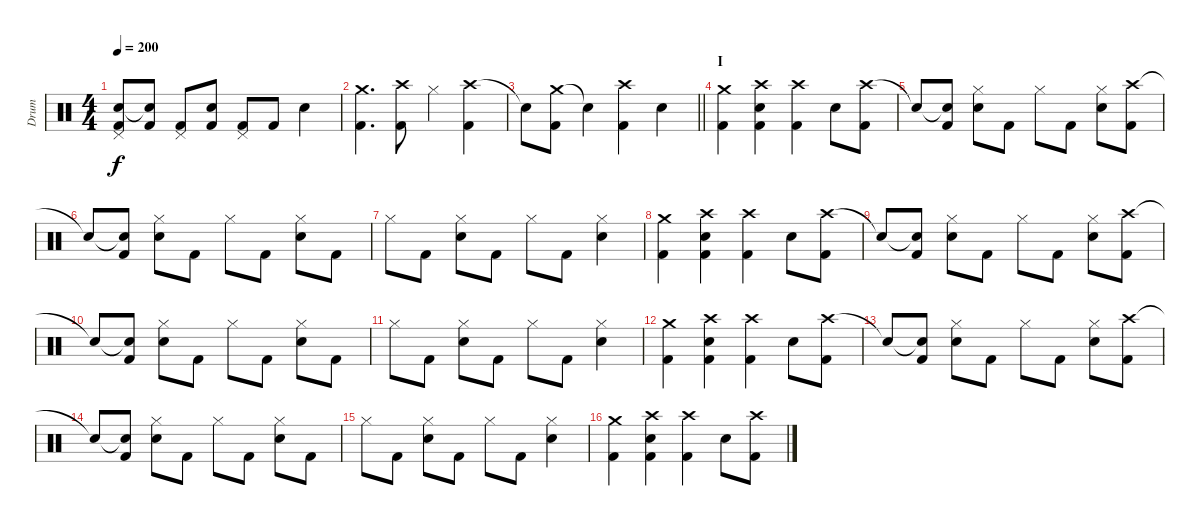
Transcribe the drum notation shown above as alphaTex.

\track ("Drum" "Drum") {instrument percussion}
\staff {score}
\articulation defaults
\ts (4 4)
\tempo 200
\clef neutral
\ks c
("Snare (hit) 2" "Pedal Hi-Hat (hit)" "Kick (hit) 2").8{dy f} ("Snare (hit)"{t} "Kick (hit) 2").8 ("Pedal Hi-Hat (hit)" "Kick (hit) 2").8 ("Snare (hit) 2" "Kick (hit) 2").8 ("Pedal Hi-Hat (hit)" "Kick (hit) 2").8 "Kick (hit) 2".8 "Snare (hit) 2".4 |
("Crash medium (hit)" "Kick (hit) 2").4{d} ("Crash high (hit)" "Kick (hit) 2").8 "Hi-Hat (closed)".4 ("Crash high (hit)" "Kick (hit) 2").4 |
\barLineRight lightlight "Snare (hit)"{t}.8
("Crash medium (hit)" "Kick (hit) 2").8 "Snare (hit)"{t}.4 ("Crash high (hit)" "Kick (hit) 2").4 "Snare (hit) 2".4 |
\section ("" "I")
("Crash medium (hit)" "Kick (hit) 2").4 ("Crash high (hit)" "Snare (hit) 2" "Kick (hit) 2").4 ("Crash high (hit)" "Kick (hit) 2").4 "Snare (hit) 2".8 ("Crash high (hit)" "Kick (hit) 2").8 |
"Snare (hit)"{t}.8 ("Snare (hit)"{t} "Kick (hit) 2").8 ("Hi-Hat (closed)" "Snare (hit) 2").8 "Kick (hit) 2".8 "Hi-Hat (closed)".8 "Kick (hit) 2".8 ("Hi-Hat (closed)" "Snare (hit) 2").8 ("Crash high (hit)" "Kick (hit) 2").8 |
"Snare (hit)"{t}.8 ("Snare (hit)"{t} "Kick (hit) 2").8 ("Hi-Hat (closed)" "Snare (hit) 2").8 "Kick (hit) 2".8 "Hi-Hat (closed)".8 "Kick (hit) 2".8 ("Hi-Hat (closed)" "Snare (hit) 2").8 "Kick (hit) 2".8 |
"Hi-Hat (closed)".8 "Kick (hit) 2".8 ("Hi-Hat (closed)" "Snare (hit) 2").8 "Kick (hit) 2".8 "Hi-Hat (closed)".8 "Kick (hit) 2".8 ("Hi-Hat (closed)" "Snare (hit) 2").4 |
("Crash medium (hit)" "Kick (hit) 2").4 ("Crash high (hit)" "Snare (hit) 2" "Kick (hit) 2").4 ("Crash high (hit)" "Kick (hit) 2").4 "Snare (hit) 2".8 ("Crash high (hit)" "Kick (hit) 2").8 |
"Snare (hit)"{t}.8 ("Snare (hit)"{t} "Kick (hit) 2").8 ("Hi-Hat (closed)" "Snare (hit) 2").8 "Kick (hit) 2".8 "Hi-Hat (closed)".8 "Kick (hit) 2".8 ("Hi-Hat (closed)" "Snare (hit) 2").8 ("Crash high (hit)" "Kick (hit) 2").8 |
"Snare (hit)"{t}.8 ("Snare (hit)"{t} "Kick (hit) 2").8 ("Hi-Hat (closed)" "Snare (hit) 2").8 "Kick (hit) 2".8 "Hi-Hat (closed)".8 "Kick (hit) 2".8 ("Hi-Hat (closed)" "Snare (hit) 2").8 "Kick (hit) 2".8 |
"Hi-Hat (closed)".8 "Kick (hit) 2".8 ("Hi-Hat (closed)" "Snare (hit) 2").8 "Kick (hit) 2".8 "Hi-Hat (closed)".8 "Kick (hit) 2".8 ("Hi-Hat (closed)" "Snare (hit) 2").4 |
("Crash medium (hit)" "Kick (hit) 2").4 ("Crash high (hit)" "Snare (hit) 2" "Kick (hit) 2").4 ("Crash high (hit)" "Kick (hit) 2").4 "Snare (hit) 2".8 ("Crash high (hit)" "Kick (hit) 2").8 |
"Snare (hit)"{t}.8 ("Snare (hit)"{t} "Kick (hit) 2").8 ("Hi-Hat (closed)" "Snare (hit) 2").8 "Kick (hit) 2".8 "Hi-Hat (closed)".8 "Kick (hit) 2".8 ("Hi-Hat (closed)" "Snare (hit) 2").8 ("Crash high (hit)" "Kick (hit) 2").8 |
"Snare (hit)"{t}.8 ("Snare (hit)"{t} "Kick (hit) 2").8 ("Hi-Hat (closed)" "Snare (hit) 2").8 "Kick (hit) 2".8 "Hi-Hat (closed)".8 "Kick (hit) 2".8 ("Hi-Hat (closed)" "Snare (hit) 2").8 "Kick (hit) 2".8 |
"Hi-Hat (closed)".8 "Kick (hit) 2".8 ("Hi-Hat (closed)" "Snare (hit) 2").8 "Kick (hit) 2".8 "Hi-Hat (closed)".8 "Kick (hit) 2".8 ("Hi-Hat (closed)" "Snare (hit) 2").4 |
("Crash medium (hit)" "Kick (hit) 2").4 ("Crash high (hit)" "Snare (hit) 2" "Kick (hit) 2").4 ("Crash high (hit)" "Kick (hit) 2").4 "Snare (hit) 2".8 ("Crash high (hit)" "Kick (hit) 2").8
